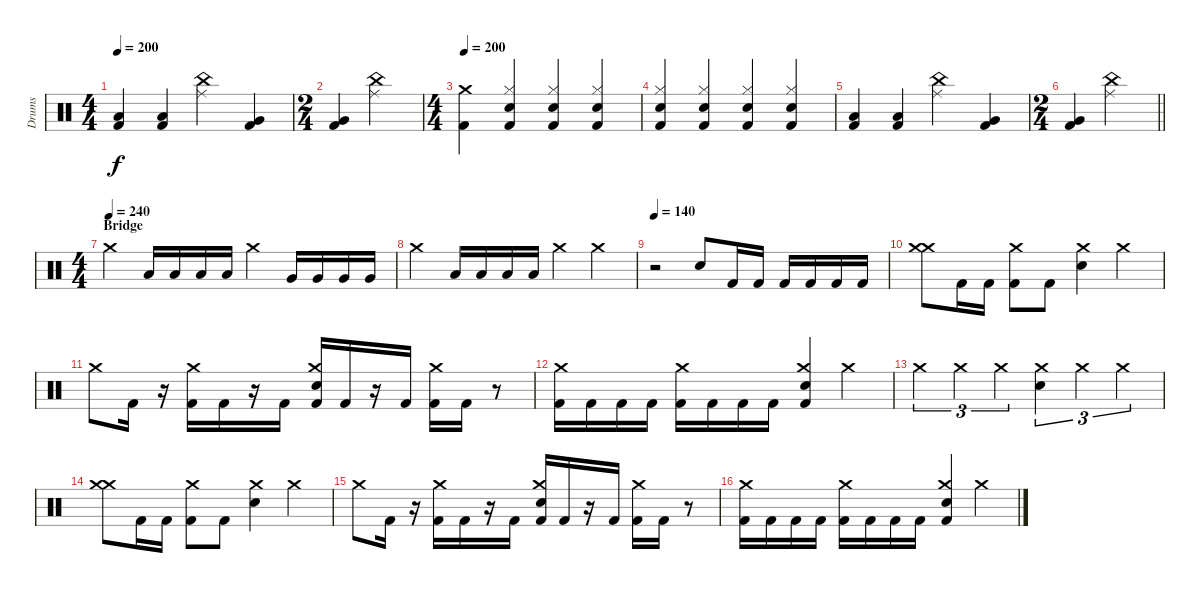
\track ("Drums" "Drums") {instrument percussion}
\staff {score}
\articulation defaults
\ts (4 4)
\tempo 200
\clef neutral
\ks c
("Low Tom (hit)" "Kick (hit) 2").4{dy f} ("Low Tom (hit)" "Kick (hit) 2").4 ("Ride (middle)" "China (hit)").4 ("Very Low Tom (hit)" "Kick (hit) 2").4 |
\ts (2 4)
("Very Low Tom (hit)" "Kick (hit) 2").4 ("Ride (middle)" "China (hit)").4 |
\ts (4 4)
\tempo 200
("Kick (hit) 2" "Crash medium (hit)").4 ("Hi-Hat (closed)" "Kick (hit) 2" "Snare (hit) 2").4 ("Hi-Hat (closed)" "Kick (hit) 2" "Snare (hit) 2").4 ("Hi-Hat (closed)" "Kick (hit) 2" "Snare (hit) 2").4 |
("Hi-Hat (closed)" "Kick (hit) 2" "Snare (hit) 2").4 ("Hi-Hat (closed)" "Kick (hit) 2" "Snare (hit) 2").4 ("Hi-Hat (closed)" "Kick (hit) 2" "Snare (hit) 2").4 ("Hi-Hat (closed)" "Kick (hit) 2" "Snare (hit) 2").4 |
("Low Tom (hit)" "Kick (hit) 2").4 ("Low Tom (hit)" "Kick (hit) 2").4 ("Ride (middle)" "China (hit)").4 ("Very Low Tom (hit)" "Kick (hit) 2").4 |
\ts (2 4)
\barLineRight lightlight
("Very Low Tom (hit)" "Kick (hit) 2").4 ("Ride (middle)" "China (hit)").4 |
\ts (4 4)
\section ("" "Bridge")
\tempo 230
\tempo (240)
"Crash medium (hit)".4 "Low Tom (hit)".16 "Low Tom (hit)".16 "Low Tom (hit)".16 "Low Tom (hit)".16 "Crash medium (hit)".4 "Very Low Tom (hit)".16 "Very Low Tom (hit)".16 "Very Low Tom (hit)".16 "Very Low Tom (hit)".16 |
"Crash medium (hit)".4 "Low Tom (hit)".16 "Low Tom (hit)".16 "Low Tom (hit)".16 "Low Tom (hit)".16 "Crash medium (hit)".4 "Crash medium (hit)".4 |
\tempo 140
r.2 "Snare (hit) 2".8 "Kick (hit) 2".16 "Kick (hit) 2".16 "Kick (hit) 2".16 "Kick (hit) 2".16 "Kick (hit) 2".16 "Kick (hit) 2".16 |
("Crash medium (hit)" "Crash medium (hit)").8 "Kick (hit) 2".16 "Kick (hit) 2".16 ("Crash medium (hit)" "Kick (hit) 2").8 "Kick (hit) 2".8 ("Snare (hit) 2" "Crash medium (hit)").4 "Crash medium (hit)".4 |
"Crash medium (hit)".8 "Kick (hit) 2".16 r.16 ("Crash medium (hit)" "Kick (hit) 2").16 "Kick (hit) 2".16 r.16 "Kick (hit) 2".16 ("Snare (hit) 2" "Crash medium (hit)" "Kick (hit) 2").16 "Kick (hit) 2".16 r.16 "Kick (hit) 2".16 ("Crash medium (hit)" "Kick (hit) 2").16 "Kick (hit) 2".16 r.8 |
("Crash medium (hit)" "Kick (hit) 2").16 "Kick (hit) 2".16 "Kick (hit) 2".16 "Kick (hit) 2".16 ("Crash medium (hit)" "Kick (hit) 2").16 "Kick (hit) 2".16 "Kick (hit) 2".16 "Kick (hit) 2".16 ("Crash medium (hit)" "Snare (hit) 2" "Kick (hit) 2").4 "Crash medium (hit)".4 |
"Crash medium (hit)".4{tu (3 2)} "Crash medium (hit)".4{tu (3 2)} "Crash medium (hit)".4{tu (3 2)} ("Snare (hit) 2" "Crash medium (hit)").4{tu (3 2)} "Crash medium (hit)".4{tu (3 2)} "Crash medium (hit)".4{tu (3 2)} |
("Crash medium (hit)" "Crash medium (hit)").8 "Kick (hit) 2".16 "Kick (hit) 2".16 ("Crash medium (hit)" "Kick (hit) 2").8 "Kick (hit) 2".8 ("Snare (hit) 2" "Crash medium (hit)").4 "Crash medium (hit)".4 |
"Crash medium (hit)".8 "Kick (hit) 2".16 r.16 ("Crash medium (hit)" "Kick (hit) 2").16 "Kick (hit) 2".16 r.16 "Kick (hit) 2".16 ("Snare (hit) 2" "Crash medium (hit)" "Kick (hit) 2").16 "Kick (hit) 2".16 r.16 "Kick (hit) 2".16 ("Crash medium (hit)" "Kick (hit) 2").16 "Kick (hit) 2".16 r.8 |
("Crash medium (hit)" "Kick (hit) 2").16 "Kick (hit) 2".16 "Kick (hit) 2".16 "Kick (hit) 2".16 ("Crash medium (hit)" "Kick (hit) 2").16 "Kick (hit) 2".16 "Kick (hit) 2".16 "Kick (hit) 2".16 ("Crash medium (hit)" "Snare (hit) 2" "Kick (hit) 2").4 "Crash medium (hit)".4
